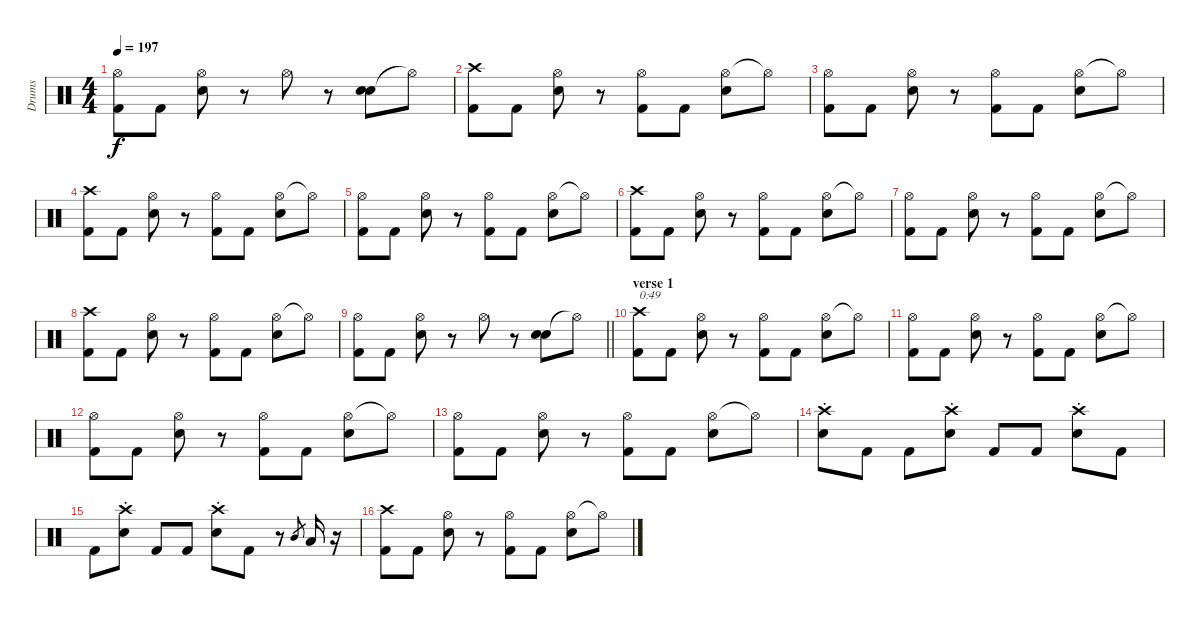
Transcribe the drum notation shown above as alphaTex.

\track ("Drums" "Drums") {instrument percussion}
\staff {score}
\articulation defaults
\ts (4 4)
\tempo 197
\clef neutral
\ks c
("Hi-Hat (open)" "Kick (hit) 2").8{dy f} "Kick (hit) 2".8 ("Hi-Hat (open)" "Snare (hit) 2").8 r.8 "Hi-Hat (open)".8 r.8 ("Snare (hit) 2" "Snare (hit) 2").8 "Hi-Hat (open)"{t}.8 |
("Crash high (hit)" "Kick (hit) 2").8 "Kick (hit) 2".8 ("Hi-Hat (open)" "Snare (hit) 2").8 r.8 ("Hi-Hat (open)" "Kick (hit) 2").8 "Kick (hit) 2".8 ("Hi-Hat (open)" "Snare (hit) 2").8 "Hi-Hat (open)"{t}.8 |
("Hi-Hat (open)" "Kick (hit) 2").8 "Kick (hit) 2".8 ("Hi-Hat (open)" "Snare (hit) 2").8 r.8 ("Hi-Hat (open)" "Kick (hit) 2").8 "Kick (hit) 2".8 ("Hi-Hat (open)" "Snare (hit) 2").8 "Hi-Hat (open)"{t}.8 |
("Crash high (hit)" "Kick (hit) 2").8 "Kick (hit) 2".8 ("Hi-Hat (open)" "Snare (hit) 2").8 r.8 ("Hi-Hat (open)" "Kick (hit) 2").8 "Kick (hit) 2".8 ("Hi-Hat (open)" "Snare (hit) 2").8 "Hi-Hat (open)"{t}.8 |
("Hi-Hat (open)" "Kick (hit) 2").8 "Kick (hit) 2".8 ("Hi-Hat (open)" "Snare (hit) 2").8 r.8 ("Hi-Hat (open)" "Kick (hit) 2").8 "Kick (hit) 2".8 ("Hi-Hat (open)" "Snare (hit) 2").8 "Hi-Hat (open)"{t}.8 |
("Crash high (hit)" "Kick (hit) 2").8 "Kick (hit) 2".8 ("Hi-Hat (open)" "Snare (hit) 2").8 r.8 ("Hi-Hat (open)" "Kick (hit) 2").8 "Kick (hit) 2".8 ("Hi-Hat (open)" "Snare (hit) 2").8 "Hi-Hat (open)"{t}.8 |
("Hi-Hat (open)" "Kick (hit) 2").8 "Kick (hit) 2".8 ("Hi-Hat (open)" "Snare (hit) 2").8 r.8 ("Hi-Hat (open)" "Kick (hit) 2").8 "Kick (hit) 2".8 ("Hi-Hat (open)" "Snare (hit) 2").8 "Hi-Hat (open)"{t}.8 |
("Crash high (hit)" "Kick (hit) 2").8 "Kick (hit) 2".8 ("Hi-Hat (open)" "Snare (hit) 2").8 r.8 ("Hi-Hat (open)" "Kick (hit) 2").8 "Kick (hit) 2".8 ("Hi-Hat (open)" "Snare (hit) 2").8 "Hi-Hat (open)"{t}.8 |
\barLineRight lightlight
("Hi-Hat (open)" "Kick (hit) 2").8 "Kick (hit) 2".8 ("Hi-Hat (open)" "Snare (hit) 2").8 r.8 "Hi-Hat (open)".8 r.8 ("Snare (hit) 2" "Snare (hit) 2").8 "Hi-Hat (open)"{t}.8 |
\section ("" "verse 1")
("Crash high (hit)" "Kick (hit) 2").8{txt "0:49"} "Kick (hit) 2".8 ("Hi-Hat (open)" "Snare (hit) 2").8 r.8 ("Hi-Hat (open)" "Kick (hit) 2").8 "Kick (hit) 2".8 ("Hi-Hat (open)" "Snare (hit) 2").8 "Hi-Hat (open)"{t}.8 |
("Hi-Hat (open)" "Kick (hit) 2").8 "Kick (hit) 2".8 ("Hi-Hat (open)" "Snare (hit) 2").8 r.8 ("Hi-Hat (open)" "Kick (hit) 2").8 "Kick (hit) 2".8 ("Hi-Hat (open)" "Snare (hit) 2").8 "Hi-Hat (open)"{t}.8 |
("Hi-Hat (open)" "Kick (hit) 2").8 "Kick (hit) 2".8 ("Hi-Hat (open)" "Snare (hit) 2").8 r.8 ("Hi-Hat (open)" "Kick (hit) 2").8 "Kick (hit) 2".8 ("Hi-Hat (open)" "Snare (hit) 2").8 "Hi-Hat (open)"{t}.8 |
("Hi-Hat (open)" "Kick (hit) 2").8 "Kick (hit) 2".8 ("Hi-Hat (open)" "Snare (hit) 2").8 r.8 ("Hi-Hat (open)" "Kick (hit) 2").8 "Kick (hit) 2".8 ("Hi-Hat (open)" "Snare (hit) 2").8 "Hi-Hat (open)"{t}.8 |
("Crash high (hit)"{st} "Snare (hit) 2"{st}).8 "Kick (hit) 2".8 "Kick (hit) 2".8 ("Crash high (hit)"{st} "Snare (hit) 2"{st}).8 "Kick (hit) 2".8 "Kick (hit) 2".8 ("Crash high (hit)"{st} "Snare (hit) 2"{st}).8 "Kick (hit) 2".8 |
"Kick (hit) 2".8 ("Crash high (hit)"{st} "Snare (hit) 2"{st}).8 "Kick (hit) 2".8 "Kick (hit) 2".8 ("Crash high (hit)"{st} "Snare (hit) 2"{st}).8 "Kick (hit) 2".8 r.8 "Mid Tom (hit)".8{gr} "Low Tom (hit)".16 r.16 |
("Crash high (hit)" "Kick (hit) 2").8 "Kick (hit) 2".8 ("Hi-Hat (open)" "Snare (hit) 2").8 r.8 ("Hi-Hat (open)" "Kick (hit) 2").8 "Kick (hit) 2".8 ("Hi-Hat (open)" "Snare (hit) 2").8 "Hi-Hat (open)"{t}.8
